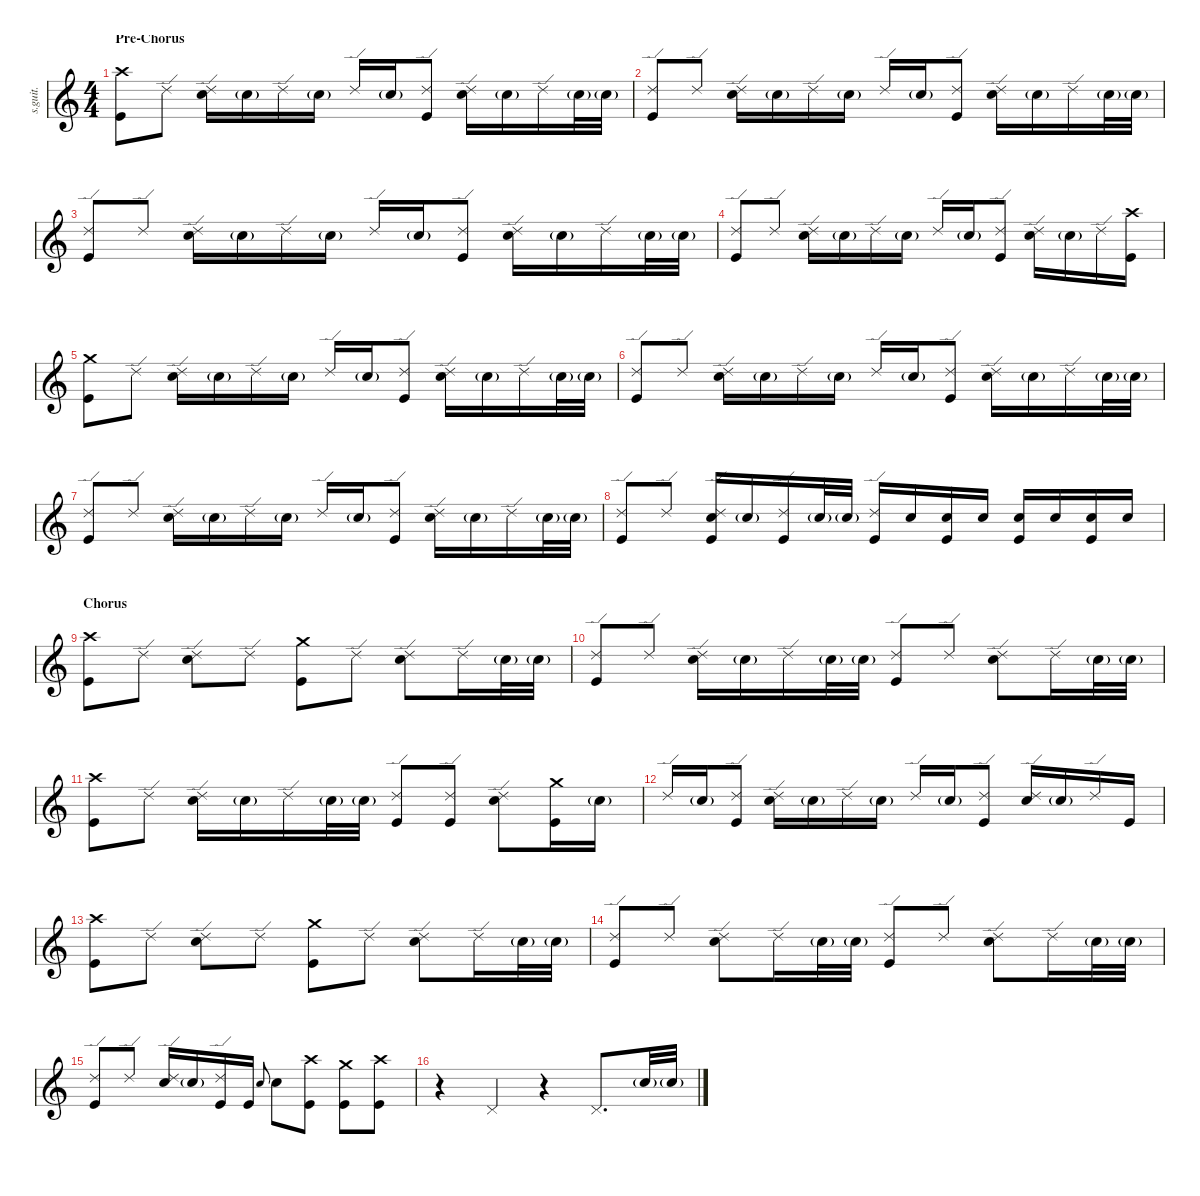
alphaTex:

\defaultSystemsLayout 4
\hideDynamics
\bracketExtendMode nobrackets
\track ("C. Smith" "s.guit.") {instrument percussion}
\staff {score}
\articulation defaults
\ts (4 4)
\section ("" "Pre-Chorus")
\tempo (96 hide)
\clef g2
\ks c
("Crash high (hit)" "Kick (hit)").8{lyrics (0 "") lyrics (1 "") lyrics (2 "") lyrics (3 "") lyrics (4 "") dy f} "Ride (edge) 2".8{lyrics (0 "") lyrics (1 "") lyrics (2 "") lyrics (3 "") lyrics (4 "")} ("Ride (edge) 2" "Snare (hit) 2").16{lyrics (0 "") lyrics (1 "") lyrics (2 "") lyrics (3 "") lyrics (4 "")} "Snare (hit) 2"{g}.16{lyrics (0 "") lyrics (1 "") lyrics (2 "") lyrics (3 "") lyrics (4 "") dy ppp} "Ride (edge) 2".16{lyrics (0 "") lyrics (1 "") lyrics (2 "") lyrics (3 "") lyrics (4 "") dy f} "Snare (hit) 2"{g}.16{lyrics (0 "") lyrics (1 "") lyrics (2 "") lyrics (3 "") lyrics (4 "") dy ppp} "Ride (edge) 2".16{lyrics (0 "") lyrics (1 "") lyrics (2 "") lyrics (3 "") lyrics (4 "") dy f} "Snare (hit) 2"{g}.16{lyrics (0 "") lyrics (1 "") lyrics (2 "") lyrics (3 "") lyrics (4 "") dy ppp} ("Ride (edge) 2" "Kick (hit)").8{lyrics (0 "") lyrics (1 "") lyrics (2 "") lyrics (3 "") lyrics (4 "") dy f} ("Ride (edge) 2" "Snare (hit) 2").16{lyrics (0 "") lyrics (1 "") lyrics (2 "") lyrics (3 "") lyrics (4 "")} "Snare (hit) 2"{g}.16{lyrics (0 "") lyrics (1 "") lyrics (2 "") lyrics (3 "") lyrics (4 "") dy ppp} "Ride (edge) 2".16{lyrics (0 "") lyrics (1 "") lyrics (2 "") lyrics (3 "") lyrics (4 "") dy f} "Snare (hit) 2"{g}.32{lyrics (0 "") lyrics (1 "") lyrics (2 "") lyrics (3 "") lyrics (4 "") dy ppp} "Snare (hit) 2"{g}.32{lyrics (0 "") lyrics (1 "") lyrics (2 "") lyrics (3 "") lyrics (4 "")} |
("Ride (edge) 2" "Kick (hit)").8{lyrics (0 "") lyrics (1 "") lyrics (2 "") lyrics (3 "") lyrics (4 "") dy f} "Ride (edge) 2".8{lyrics (0 "") lyrics (1 "") lyrics (2 "") lyrics (3 "") lyrics (4 "")} ("Ride (edge) 2" "Snare (hit) 2").16{lyrics (0 "") lyrics (1 "") lyrics (2 "") lyrics (3 "") lyrics (4 "")} "Snare (hit) 2"{g}.16{lyrics (0 "") lyrics (1 "") lyrics (2 "") lyrics (3 "") lyrics (4 "") dy ppp} "Ride (edge) 2".16{lyrics (0 "") lyrics (1 "") lyrics (2 "") lyrics (3 "") lyrics (4 "") dy f} "Snare (hit) 2"{g}.16{lyrics (0 "") lyrics (1 "") lyrics (2 "") lyrics (3 "") lyrics (4 "") dy ppp} "Ride (edge) 2".16{lyrics (0 "") lyrics (1 "") lyrics (2 "") lyrics (3 "") lyrics (4 "") dy f} "Snare (hit) 2"{g}.16{lyrics (0 "") lyrics (1 "") lyrics (2 "") lyrics (3 "") lyrics (4 "") dy ppp} ("Ride (edge) 2" "Kick (hit)").8{lyrics (0 "") lyrics (1 "") lyrics (2 "") lyrics (3 "") lyrics (4 "") dy f} ("Ride (edge) 2" "Snare (hit) 2").16{lyrics (0 "") lyrics (1 "") lyrics (2 "") lyrics (3 "") lyrics (4 "")} "Snare (hit) 2"{g}.16{lyrics (0 "") lyrics (1 "") lyrics (2 "") lyrics (3 "") lyrics (4 "") dy ppp} "Ride (edge) 2".16{lyrics (0 "") lyrics (1 "") lyrics (2 "") lyrics (3 "") lyrics (4 "") dy f} "Snare (hit) 2"{g}.32{lyrics (0 "") lyrics (1 "") lyrics (2 "") lyrics (3 "") lyrics (4 "") dy ppp} "Snare (hit) 2"{g}.32{lyrics (0 "") lyrics (1 "") lyrics (2 "") lyrics (3 "") lyrics (4 "")} |
("Ride (edge) 2" "Kick (hit)").8{lyrics (0 "") lyrics (1 "") lyrics (2 "") lyrics (3 "") lyrics (4 "") dy f} "Ride (edge) 2".8{lyrics (0 "") lyrics (1 "") lyrics (2 "") lyrics (3 "") lyrics (4 "")} ("Ride (edge) 2" "Snare (hit) 2").16{lyrics (0 "") lyrics (1 "") lyrics (2 "") lyrics (3 "") lyrics (4 "")} "Snare (hit) 2"{g}.16{lyrics (0 "") lyrics (1 "") lyrics (2 "") lyrics (3 "") lyrics (4 "") dy ppp} "Ride (edge) 2".16{lyrics (0 "") lyrics (1 "") lyrics (2 "") lyrics (3 "") lyrics (4 "") dy f} "Snare (hit) 2"{g}.16{lyrics (0 "") lyrics (1 "") lyrics (2 "") lyrics (3 "") lyrics (4 "") dy ppp} "Ride (edge) 2".16{lyrics (0 "") lyrics (1 "") lyrics (2 "") lyrics (3 "") lyrics (4 "") dy f} "Snare (hit) 2"{g}.16{lyrics (0 "") lyrics (1 "") lyrics (2 "") lyrics (3 "") lyrics (4 "") dy ppp} ("Ride (edge) 2" "Kick (hit)").8{lyrics (0 "") lyrics (1 "") lyrics (2 "") lyrics (3 "") lyrics (4 "") dy f} ("Ride (edge) 2" "Snare (hit) 2").16{lyrics (0 "") lyrics (1 "") lyrics (2 "") lyrics (3 "") lyrics (4 "")} "Snare (hit) 2"{g}.16{lyrics (0 "") lyrics (1 "") lyrics (2 "") lyrics (3 "") lyrics (4 "") dy ppp} "Ride (edge) 2".16{lyrics (0 "") lyrics (1 "") lyrics (2 "") lyrics (3 "") lyrics (4 "") dy f} "Snare (hit) 2"{g}.32{lyrics (0 "") lyrics (1 "") lyrics (2 "") lyrics (3 "") lyrics (4 "") dy ppp} "Snare (hit) 2"{g}.32{lyrics (0 "") lyrics (1 "") lyrics (2 "") lyrics (3 "") lyrics (4 "")} |
("Ride (edge) 2" "Kick (hit)").8{lyrics (0 "") lyrics (1 "") lyrics (2 "") lyrics (3 "") lyrics (4 "") dy f} "Ride (edge) 2".8{lyrics (0 "") lyrics (1 "") lyrics (2 "") lyrics (3 "") lyrics (4 "")} ("Ride (edge) 2" "Snare (hit) 2").16{lyrics (0 "") lyrics (1 "") lyrics (2 "") lyrics (3 "") lyrics (4 "")} "Snare (hit) 2"{g}.16{lyrics (0 "") lyrics (1 "") lyrics (2 "") lyrics (3 "") lyrics (4 "") dy ppp} "Ride (edge) 2".16{lyrics (0 "") lyrics (1 "") lyrics (2 "") lyrics (3 "") lyrics (4 "") dy f} "Snare (hit) 2"{g}.16{lyrics (0 "") lyrics (1 "") lyrics (2 "") lyrics (3 "") lyrics (4 "") dy ppp} "Ride (edge) 2".16{lyrics (0 "") lyrics (1 "") lyrics (2 "") lyrics (3 "") lyrics (4 "") dy f} "Snare (hit) 2"{g}.16{lyrics (0 "") lyrics (1 "") lyrics (2 "") lyrics (3 "") lyrics (4 "") dy ppp} ("Ride (edge) 2" "Kick (hit)").8{lyrics (0 "") lyrics (1 "") lyrics (2 "") lyrics (3 "") lyrics (4 "") dy f} ("Ride (edge) 2" "Snare (hit) 2").16{lyrics (0 "") lyrics (1 "") lyrics (2 "") lyrics (3 "") lyrics (4 "")} "Snare (hit) 2"{g}.16{lyrics (0 "") lyrics (1 "") lyrics (2 "") lyrics (3 "") lyrics (4 "") dy ppp} "Ride (edge) 2".16{lyrics (0 "") lyrics (1 "") lyrics (2 "") lyrics (3 "") lyrics (4 "") dy f} ("Crash high (hit)" "Kick (hit)").16{lyrics (0 "") lyrics (1 "") lyrics (2 "") lyrics (3 "") lyrics (4 "")} |
("Crash medium (hit)" "Kick (hit)").8{lyrics (0 "") lyrics (1 "") lyrics (2 "") lyrics (3 "") lyrics (4 "")} "Ride (edge) 2".8{lyrics (0 "") lyrics (1 "") lyrics (2 "") lyrics (3 "") lyrics (4 "")} ("Ride (edge) 2" "Snare (hit) 2").16{lyrics (0 "") lyrics (1 "") lyrics (2 "") lyrics (3 "") lyrics (4 "")} "Snare (hit) 2"{g}.16{lyrics (0 "") lyrics (1 "") lyrics (2 "") lyrics (3 "") lyrics (4 "") dy ppp} "Ride (edge) 2".16{lyrics (0 "") lyrics (1 "") lyrics (2 "") lyrics (3 "") lyrics (4 "") dy f} "Snare (hit) 2"{g}.16{lyrics (0 "") lyrics (1 "") lyrics (2 "") lyrics (3 "") lyrics (4 "") dy ppp} "Ride (edge) 2".16{lyrics (0 "") lyrics (1 "") lyrics (2 "") lyrics (3 "") lyrics (4 "") dy f} "Snare (hit) 2"{g}.16{lyrics (0 "") lyrics (1 "") lyrics (2 "") lyrics (3 "") lyrics (4 "") dy ppp} ("Ride (edge) 2" "Kick (hit)").8{lyrics (0 "") lyrics (1 "") lyrics (2 "") lyrics (3 "") lyrics (4 "") dy f} ("Ride (edge) 2" "Snare (hit) 2").16{lyrics (0 "") lyrics (1 "") lyrics (2 "") lyrics (3 "") lyrics (4 "")} "Snare (hit) 2"{g}.16{lyrics (0 "") lyrics (1 "") lyrics (2 "") lyrics (3 "") lyrics (4 "") dy ppp} "Ride (edge) 2".16{lyrics (0 "") lyrics (1 "") lyrics (2 "") lyrics (3 "") lyrics (4 "") dy f} "Snare (hit) 2"{g}.32{lyrics (0 "") lyrics (1 "") lyrics (2 "") lyrics (3 "") lyrics (4 "") dy ppp} "Snare (hit) 2"{g}.32{lyrics (0 "") lyrics (1 "") lyrics (2 "") lyrics (3 "") lyrics (4 "")} |
("Ride (edge) 2" "Kick (hit)").8{lyrics (0 "") lyrics (1 "") lyrics (2 "") lyrics (3 "") lyrics (4 "") dy f} "Ride (edge) 2".8{lyrics (0 "") lyrics (1 "") lyrics (2 "") lyrics (3 "") lyrics (4 "")} ("Ride (edge) 2" "Snare (hit) 2").16{lyrics (0 "") lyrics (1 "") lyrics (2 "") lyrics (3 "") lyrics (4 "")} "Snare (hit) 2"{g}.16{lyrics (0 "") lyrics (1 "") lyrics (2 "") lyrics (3 "") lyrics (4 "") dy ppp} "Ride (edge) 2".16{lyrics (0 "") lyrics (1 "") lyrics (2 "") lyrics (3 "") lyrics (4 "") dy f} "Snare (hit) 2"{g}.16{lyrics (0 "") lyrics (1 "") lyrics (2 "") lyrics (3 "") lyrics (4 "") dy ppp} "Ride (edge) 2".16{lyrics (0 "") lyrics (1 "") lyrics (2 "") lyrics (3 "") lyrics (4 "") dy f} "Snare (hit) 2"{g}.16{lyrics (0 "") lyrics (1 "") lyrics (2 "") lyrics (3 "") lyrics (4 "") dy ppp} ("Ride (edge) 2" "Kick (hit)").8{lyrics (0 "") lyrics (1 "") lyrics (2 "") lyrics (3 "") lyrics (4 "") dy f} ("Ride (edge) 2" "Snare (hit) 2").16{lyrics (0 "") lyrics (1 "") lyrics (2 "") lyrics (3 "") lyrics (4 "")} "Snare (hit) 2"{g}.16{lyrics (0 "") lyrics (1 "") lyrics (2 "") lyrics (3 "") lyrics (4 "") dy ppp} "Ride (edge) 2".16{lyrics (0 "") lyrics (1 "") lyrics (2 "") lyrics (3 "") lyrics (4 "") dy f} "Snare (hit) 2"{g}.32{lyrics (0 "") lyrics (1 "") lyrics (2 "") lyrics (3 "") lyrics (4 "") dy ppp} "Snare (hit) 2"{g}.32{lyrics (0 "") lyrics (1 "") lyrics (2 "") lyrics (3 "") lyrics (4 "")} |
("Ride (edge) 2" "Kick (hit)").8{lyrics (0 "") lyrics (1 "") lyrics (2 "") lyrics (3 "") lyrics (4 "") dy f} "Ride (edge) 2".8{lyrics (0 "") lyrics (1 "") lyrics (2 "") lyrics (3 "") lyrics (4 "")} ("Ride (edge) 2" "Snare (hit) 2").16{lyrics (0 "") lyrics (1 "") lyrics (2 "") lyrics (3 "") lyrics (4 "")} "Snare (hit) 2"{g}.16{lyrics (0 "") lyrics (1 "") lyrics (2 "") lyrics (3 "") lyrics (4 "") dy ppp} "Ride (edge) 2".16{lyrics (0 "") lyrics (1 "") lyrics (2 "") lyrics (3 "") lyrics (4 "") dy f} "Snare (hit) 2"{g}.16{lyrics (0 "") lyrics (1 "") lyrics (2 "") lyrics (3 "") lyrics (4 "") dy ppp} "Ride (edge) 2".16{lyrics (0 "") lyrics (1 "") lyrics (2 "") lyrics (3 "") lyrics (4 "") dy f} "Snare (hit) 2"{g}.16{lyrics (0 "") lyrics (1 "") lyrics (2 "") lyrics (3 "") lyrics (4 "") dy ppp} ("Ride (edge) 2" "Kick (hit)").8{lyrics (0 "") lyrics (1 "") lyrics (2 "") lyrics (3 "") lyrics (4 "") dy f} ("Ride (edge) 2" "Snare (hit) 2").16{lyrics (0 "") lyrics (1 "") lyrics (2 "") lyrics (3 "") lyrics (4 "")} "Snare (hit) 2"{g}.16{lyrics (0 "") lyrics (1 "") lyrics (2 "") lyrics (3 "") lyrics (4 "") dy ppp} "Ride (edge) 2".16{lyrics (0 "") lyrics (1 "") lyrics (2 "") lyrics (3 "") lyrics (4 "") dy f} "Snare (hit) 2"{g}.32{lyrics (0 "") lyrics (1 "") lyrics (2 "") lyrics (3 "") lyrics (4 "") dy ppp} "Snare (hit) 2"{g}.32{lyrics (0 "") lyrics (1 "") lyrics (2 "") lyrics (3 "") lyrics (4 "")} |
("Ride (edge) 2" "Kick (hit)").8{lyrics (0 "") lyrics (1 "") lyrics (2 "") lyrics (3 "") lyrics (4 "") dy f} "Ride (edge) 2".8{lyrics (0 "") lyrics (1 "") lyrics (2 "") lyrics (3 "") lyrics (4 "")} ("Ride (edge) 2" "Snare (hit) 2" "Kick (hit)").16{lyrics (0 "") lyrics (1 "") lyrics (2 "") lyrics (3 "") lyrics (4 "")} "Snare (hit) 2"{g}.16{lyrics (0 "") lyrics (1 "") lyrics (2 "") lyrics (3 "") lyrics (4 "") dy ppp} ("Ride (edge) 2" "Kick (hit)").16{lyrics (0 "") lyrics (1 "") lyrics (2 "") lyrics (3 "") lyrics (4 "") dy f} "Snare (hit) 2"{g}.32{lyrics (0 "") lyrics (1 "") lyrics (2 "") lyrics (3 "") lyrics (4 "") dy ppp} "Snare (hit) 2"{g}.32{lyrics (0 "") lyrics (1 "") lyrics (2 "") lyrics (3 "") lyrics (4 "")} ("Ride (edge) 2" "Kick (hit)").16{lyrics (0 "") lyrics (1 "") lyrics (2 "") lyrics (3 "") lyrics (4 "") dy f} "Snare (hit) 2".16{lyrics (0 "") lyrics (1 "") lyrics (2 "") lyrics (3 "") lyrics (4 "") dy pp} ("Snare (hit) 2" "Kick (hit)").16{lyrics (0 "") lyrics (1 "") lyrics (2 "") lyrics (3 "") lyrics (4 "") dy p} "Snare (hit) 2".16{lyrics (0 "") lyrics (1 "") lyrics (2 "") lyrics (3 "") lyrics (4 "")} ("Snare (hit) 2" "Kick (hit)").16{lyrics (0 "") lyrics (1 "") lyrics (2 "") lyrics (3 "") lyrics (4 "") dy mf} "Snare (hit) 2".16{lyrics (0 "") lyrics (1 "") lyrics (2 "") lyrics (3 "") lyrics (4 "") dy f} ("Snare (hit) 2" "Kick (hit)").16{lyrics (0 "") lyrics (1 "") lyrics (2 "") lyrics (3 "") lyrics (4 "") dy ff} "Snare (hit) 2".16{lyrics (0 "") lyrics (1 "") lyrics (2 "") lyrics (3 "") lyrics (4 "") dy fff} |
\section ("" "Chorus")
("Crash high (hit)" "Kick (hit)").8{lyrics (0 "") lyrics (1 "") lyrics (2 "") lyrics (3 "") lyrics (4 "") dy f} "Ride (edge) 2".8{lyrics (0 "") lyrics (1 "") lyrics (2 "") lyrics (3 "") lyrics (4 "")} ("Ride (edge) 2" "Snare (hit) 2").8{lyrics (0 "") lyrics (1 "") lyrics (2 "") lyrics (3 "") lyrics (4 "")} "Ride (edge) 2".8{lyrics (0 "") lyrics (1 "") lyrics (2 "") lyrics (3 "") lyrics (4 "")} ("Crash medium (hit)" "Kick (hit)").8{lyrics (0 "") lyrics (1 "") lyrics (2 "") lyrics (3 "") lyrics (4 "")} "Ride (edge) 2".8{lyrics (0 "") lyrics (1 "") lyrics (2 "") lyrics (3 "") lyrics (4 "")} ("Ride (edge) 2" "Snare (hit) 2").8{lyrics (0 "") lyrics (1 "") lyrics (2 "") lyrics (3 "") lyrics (4 "")} "Ride (edge) 2".16{lyrics (0 "") lyrics (1 "") lyrics (2 "") lyrics (3 "") lyrics (4 "")} "Snare (hit) 2"{g}.32{lyrics (0 "") lyrics (1 "") lyrics (2 "") lyrics (3 "") lyrics (4 "") dy ppp} "Snare (hit) 2"{g}.32{lyrics (0 "") lyrics (1 "") lyrics (2 "") lyrics (3 "") lyrics (4 "")} |
("Ride (edge) 2" "Kick (hit)").8{lyrics (0 "") lyrics (1 "") lyrics (2 "") lyrics (3 "") lyrics (4 "") dy f} "Ride (edge) 2".8{lyrics (0 "") lyrics (1 "") lyrics (2 "") lyrics (3 "") lyrics (4 "")} ("Ride (edge) 2" "Snare (hit) 2").16{lyrics (0 "") lyrics (1 "") lyrics (2 "") lyrics (3 "") lyrics (4 "")} "Snare (hit) 2"{g}.16{lyrics (0 "") lyrics (1 "") lyrics (2 "") lyrics (3 "") lyrics (4 "") dy ppp} "Ride (edge) 2".16{lyrics (0 "") lyrics (1 "") lyrics (2 "") lyrics (3 "") lyrics (4 "") dy f} "Snare (hit) 2"{g}.32{lyrics (0 "") lyrics (1 "") lyrics (2 "") lyrics (3 "") lyrics (4 "") dy ppp} "Snare (hit) 2"{g}.32{lyrics (0 "") lyrics (1 "") lyrics (2 "") lyrics (3 "") lyrics (4 "")} ("Ride (edge) 2" "Kick (hit)").8{lyrics (0 "") lyrics (1 "") lyrics (2 "") lyrics (3 "") lyrics (4 "") dy f} "Ride (edge) 2".8{lyrics (0 "") lyrics (1 "") lyrics (2 "") lyrics (3 "") lyrics (4 "")} ("Ride (edge) 2" "Snare (hit) 2").8{lyrics (0 "") lyrics (1 "") lyrics (2 "") lyrics (3 "") lyrics (4 "")} "Ride (edge) 2".16{lyrics (0 "") lyrics (1 "") lyrics (2 "") lyrics (3 "") lyrics (4 "")} "Snare (hit) 2"{g}.32{lyrics (0 "") lyrics (1 "") lyrics (2 "") lyrics (3 "") lyrics (4 "") dy ppp} "Snare (hit) 2"{g}.32{lyrics (0 "") lyrics (1 "") lyrics (2 "") lyrics (3 "") lyrics (4 "")} |
("Crash high (hit)" "Kick (hit)").8{lyrics (0 "") lyrics (1 "") lyrics (2 "") lyrics (3 "") lyrics (4 "") dy f} "Ride (edge) 2".8{lyrics (0 "") lyrics (1 "") lyrics (2 "") lyrics (3 "") lyrics (4 "")} ("Ride (edge) 2" "Snare (hit) 2").16{lyrics (0 "") lyrics (1 "") lyrics (2 "") lyrics (3 "") lyrics (4 "")} "Snare (hit) 2"{g}.16{lyrics (0 "") lyrics (1 "") lyrics (2 "") lyrics (3 "") lyrics (4 "") dy ppp} "Ride (edge) 2".16{lyrics (0 "") lyrics (1 "") lyrics (2 "") lyrics (3 "") lyrics (4 "") dy f} "Snare (hit) 2"{g}.32{lyrics (0 "") lyrics (1 "") lyrics (2 "") lyrics (3 "") lyrics (4 "") dy ppp} "Snare (hit) 2"{g}.32{lyrics (0 "") lyrics (1 "") lyrics (2 "") lyrics (3 "") lyrics (4 "")} ("Ride (edge) 2" "Kick (hit)").8{lyrics (0 "") lyrics (1 "") lyrics (2 "") lyrics (3 "") lyrics (4 "") dy f} ("Ride (edge) 2" "Kick (hit)").8{lyrics (0 "") lyrics (1 "") lyrics (2 "") lyrics (3 "") lyrics (4 "")} ("Ride (edge) 2" "Snare (hit) 2").8{lyrics (0 "") lyrics (1 "") lyrics (2 "") lyrics (3 "") lyrics (4 "")} ("Crash medium (hit)" "Kick (hit)").16{lyrics (0 "") lyrics (1 "") lyrics (2 "") lyrics (3 "") lyrics (4 "")} "Snare (hit) 2"{g}.16{lyrics (0 "") lyrics (1 "") lyrics (2 "") lyrics (3 "") lyrics (4 "") dy ppp} |
"Ride (edge) 2".16{lyrics (0 "") lyrics (1 "") lyrics (2 "") lyrics (3 "") lyrics (4 "") dy f} "Snare (hit) 2"{g}.16{lyrics (0 "") lyrics (1 "") lyrics (2 "") lyrics (3 "") lyrics (4 "") dy ppp} ("Ride (edge) 2" "Kick (hit)").8{lyrics (0 "") lyrics (1 "") lyrics (2 "") lyrics (3 "") lyrics (4 "") dy f} ("Ride (edge) 2" "Snare (hit) 2").16{lyrics (0 "") lyrics (1 "") lyrics (2 "") lyrics (3 "") lyrics (4 "")} "Snare (hit) 2"{g}.16{lyrics (0 "") lyrics (1 "") lyrics (2 "") lyrics (3 "") lyrics (4 "") dy ppp} "Ride (edge) 2".16{lyrics (0 "") lyrics (1 "") lyrics (2 "") lyrics (3 "") lyrics (4 "") dy f} "Snare (hit) 2"{g}.16{lyrics (0 "") lyrics (1 "") lyrics (2 "") lyrics (3 "") lyrics (4 "") dy ppp} "Ride (edge) 2".16{lyrics (0 "") lyrics (1 "") lyrics (2 "") lyrics (3 "") lyrics (4 "") dy f} "Snare (hit) 2"{g}.16{lyrics (0 "") lyrics (1 "") lyrics (2 "") lyrics (3 "") lyrics (4 "") dy ppp} ("Ride (edge) 2" "Kick (hit)").8{lyrics (0 "") lyrics (1 "") lyrics (2 "") lyrics (3 "") lyrics (4 "") dy f} ("Ride (edge) 2" "Snare (hit) 2").16{lyrics (0 "") lyrics (1 "") lyrics (2 "") lyrics (3 "") lyrics (4 "")} "Snare (hit) 2"{g}.16{lyrics (0 "") lyrics (1 "") lyrics (2 "") lyrics (3 "") lyrics (4 "") dy ppp} "Ride (edge) 2".16{lyrics (0 "") lyrics (1 "") lyrics (2 "") lyrics (3 "") lyrics (4 "") dy f} "Kick (hit)".16{lyrics (0 "") lyrics (1 "") lyrics (2 "") lyrics (3 "") lyrics (4 "")} |
("Crash high (hit)" "Kick (hit)").8{lyrics (0 "") lyrics (1 "") lyrics (2 "") lyrics (3 "") lyrics (4 "")} "Ride (edge) 2".8{lyrics (0 "") lyrics (1 "") lyrics (2 "") lyrics (3 "") lyrics (4 "")} ("Ride (edge) 2" "Snare (hit) 2").8{lyrics (0 "") lyrics (1 "") lyrics (2 "") lyrics (3 "") lyrics (4 "")} "Ride (edge) 2".8{lyrics (0 "") lyrics (1 "") lyrics (2 "") lyrics (3 "") lyrics (4 "")} ("Crash medium (hit)" "Kick (hit)").8{lyrics (0 "") lyrics (1 "") lyrics (2 "") lyrics (3 "") lyrics (4 "")} "Ride (edge) 2".8{lyrics (0 "") lyrics (1 "") lyrics (2 "") lyrics (3 "") lyrics (4 "")} ("Ride (edge) 2" "Snare (hit) 2").8{lyrics (0 "") lyrics (1 "") lyrics (2 "") lyrics (3 "") lyrics (4 "")} "Ride (edge) 2".16{lyrics (0 "") lyrics (1 "") lyrics (2 "") lyrics (3 "") lyrics (4 "")} "Snare (hit) 2"{g}.32{lyrics (0 "") lyrics (1 "") lyrics (2 "") lyrics (3 "") lyrics (4 "") dy ppp} "Snare (hit) 2"{g}.32{lyrics (0 "") lyrics (1 "") lyrics (2 "") lyrics (3 "") lyrics (4 "")} |
("Ride (edge) 2" "Kick (hit)").8{lyrics (0 "") lyrics (1 "") lyrics (2 "") lyrics (3 "") lyrics (4 "") dy f} "Ride (edge) 2".8{lyrics (0 "") lyrics (1 "") lyrics (2 "") lyrics (3 "") lyrics (4 "")} ("Ride (edge) 2" "Snare (hit) 2").8{lyrics (0 "") lyrics (1 "") lyrics (2 "") lyrics (3 "") lyrics (4 "")} "Ride (edge) 2".16{lyrics (0 "") lyrics (1 "") lyrics (2 "") lyrics (3 "") lyrics (4 "")} "Snare (hit) 2"{g}.32{lyrics (0 "") lyrics (1 "") lyrics (2 "") lyrics (3 "") lyrics (4 "") dy ppp} "Snare (hit) 2"{g}.32{lyrics (0 "") lyrics (1 "") lyrics (2 "") lyrics (3 "") lyrics (4 "")} ("Ride (edge) 2" "Kick (hit)").8{lyrics (0 "") lyrics (1 "") lyrics (2 "") lyrics (3 "") lyrics (4 "") dy f} "Ride (edge) 2".8{lyrics (0 "") lyrics (1 "") lyrics (2 "") lyrics (3 "") lyrics (4 "")} ("Ride (edge) 2" "Snare (hit) 2").8{lyrics (0 "") lyrics (1 "") lyrics (2 "") lyrics (3 "") lyrics (4 "")} "Ride (edge) 2".16{lyrics (0 "") lyrics (1 "") lyrics (2 "") lyrics (3 "") lyrics (4 "")} "Snare (hit) 2"{g}.32{lyrics (0 "") lyrics (1 "") lyrics (2 "") lyrics (3 "") lyrics (4 "") dy ppp} "Snare (hit) 2"{g}.32{lyrics (0 "") lyrics (1 "") lyrics (2 "") lyrics (3 "") lyrics (4 "")} |
("Ride (edge) 2" "Kick (hit)").8{lyrics (0 "") lyrics (1 "") lyrics (2 "") lyrics (3 "") lyrics (4 "") dy f} "Ride (edge) 2".8{lyrics (0 "") lyrics (1 "") lyrics (2 "") lyrics (3 "") lyrics (4 "")} ("Ride (edge) 2" "Snare (hit) 2").16{lyrics (0 "") lyrics (1 "") lyrics (2 "") lyrics (3 "") lyrics (4 "")} "Snare (hit) 2"{g}.16{lyrics (0 "") lyrics (1 "") lyrics (2 "") lyrics (3 "") lyrics (4 "") dy ppp} ("Ride (edge) 2" "Kick (hit)").16{lyrics (0 "") lyrics (1 "") lyrics (2 "") lyrics (3 "") lyrics (4 "") dy f} "Kick (hit)".16{lyrics (0 "") lyrics (1 "") lyrics (2 "") lyrics (3 "") lyrics (4 "")} "Snare (hit) 2".8{lyrics (0 "") lyrics (1 "") lyrics (2 "") lyrics (3 "") lyrics (4 "") gr onbeat} "Snare (hit) 2".8{lyrics (0 "") lyrics (1 "") lyrics (2 "") lyrics (3 "") lyrics (4 "")} ("Crash high (hit)" "Kick (hit)").8{lyrics (0 "") lyrics (1 "") lyrics (2 "") lyrics (3 "") lyrics (4 "")} ("Crash medium (hit)" "Kick (hit)").8{lyrics (0 "") lyrics (1 "") lyrics (2 "") lyrics (3 "") lyrics (4 "")} ("Crash high (hit)" "Kick (hit)").8{lyrics (0 "") lyrics (1 "") lyrics (2 "") lyrics (3 "") lyrics (4 "")} |
r.4 "Pedal Hi-Hat (hit)".4{lyrics (0 "") lyrics (1 "") lyrics (2 "") lyrics (3 "") lyrics (4 "")} r.4 "Pedal Hi-Hat (hit)".8{d lyrics (0 "") lyrics (1 "") lyrics (2 "") lyrics (3 "") lyrics (4 "")} "Snare (hit) 2"{g}.32{lyrics (0 "") lyrics (1 "") lyrics (2 "") lyrics (3 "") lyrics (4 "") dy ppp} "Snare (hit) 2"{g}.32{lyrics (0 "") lyrics (1 "") lyrics (2 "") lyrics (3 "") lyrics (4 "")}
